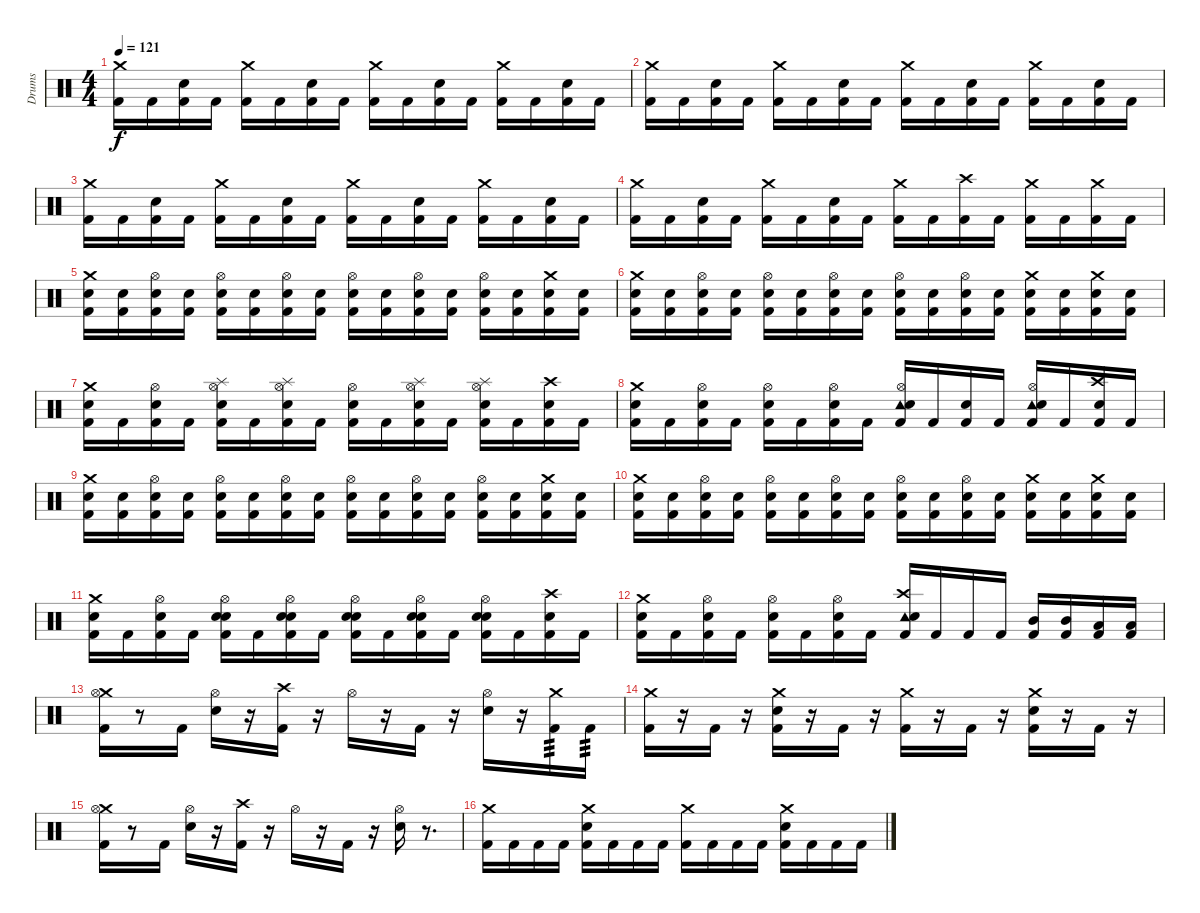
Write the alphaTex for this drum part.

\track ("Drums" "Drums") {instrument percussion}
\staff {score}
\articulation defaults
\ts (4 4)
\tempo 121
\clef neutral
\ks c
("Crash medium (hit)" "Kick (hit) 2").16{dy f} "Kick (hit) 2".16 ("Electric Snare (hit)" "Kick (hit) 2").16 "Kick (hit) 2".16 ("Crash medium (hit)" "Kick (hit) 2").16 "Kick (hit) 2".16 ("Electric Snare (hit)" "Kick (hit) 2").16 "Kick (hit) 2".16 ("Crash medium (hit)" "Kick (hit) 2").16 "Kick (hit) 2".16 ("Electric Snare (hit)" "Kick (hit) 2").16 "Kick (hit) 2".16 ("Crash medium (hit)" "Kick (hit) 2").16 "Kick (hit) 2".16 ("Electric Snare (hit)" "Kick (hit) 2").16 "Kick (hit) 2".16 |
("Crash medium (hit)" "Kick (hit) 2").16 "Kick (hit) 2".16 ("Electric Snare (hit)" "Kick (hit) 2").16 "Kick (hit) 2".16 ("Crash medium (hit)" "Kick (hit) 2").16 "Kick (hit) 2".16 ("Electric Snare (hit)" "Kick (hit) 2").16 "Kick (hit) 2".16 ("Crash medium (hit)" "Kick (hit) 2").16 "Kick (hit) 2".16 ("Electric Snare (hit)" "Kick (hit) 2").16 "Kick (hit) 2".16 ("Crash medium (hit)" "Kick (hit) 2").16 "Kick (hit) 2".16 ("Electric Snare (hit)" "Kick (hit) 2").16 "Kick (hit) 2".16 |
("Crash medium (hit)" "Kick (hit) 2").16 "Kick (hit) 2".16 ("Electric Snare (hit)" "Kick (hit) 2").16 "Kick (hit) 2".16 ("Crash medium (hit)" "Kick (hit) 2").16 "Kick (hit) 2".16 ("Electric Snare (hit)" "Kick (hit) 2").16 "Kick (hit) 2".16 ("Crash medium (hit)" "Kick (hit) 2").16 "Kick (hit) 2".16 ("Electric Snare (hit)" "Kick (hit) 2").16 "Kick (hit) 2".16 ("Crash medium (hit)" "Kick (hit) 2").16 "Kick (hit) 2".16 ("Electric Snare (hit)" "Kick (hit) 2").16 "Kick (hit) 2".16 |
("Crash medium (hit)" "Kick (hit) 2").16 "Kick (hit) 2".16 ("Electric Snare (hit)" "Kick (hit) 2").16 "Kick (hit) 2".16 ("Crash medium (hit)" "Kick (hit) 2").16 "Kick (hit) 2".16 ("Electric Snare (hit)" "Kick (hit) 2").16 "Kick (hit) 2".16 ("Crash medium (hit)" "Kick (hit) 2").16 "Kick (hit) 2".16 ("Crash high (hit)" "Kick (hit) 2").16 "Kick (hit) 2".16 ("Crash medium (hit)" "Kick (hit) 2").16 "Kick (hit) 2".16 ("Crash medium (hit)" "Kick (hit) 2").16 "Kick (hit) 2".16 |
("Crash medium (hit)" "Snare (hit) 2" "Kick (hit) 2").16 ("Snare (hit) 2" "Kick (hit) 2").16 ("Hi-Hat (open)" "Snare (hit) 2" "Kick (hit) 2").16 ("Snare (hit) 2" "Kick (hit) 2").16 ("Hi-Hat (open)" "Snare (hit) 2" "Kick (hit) 2").16 ("Snare (hit) 2" "Kick (hit) 2").16 ("Hi-Hat (open)" "Snare (hit) 2" "Kick (hit) 2").16 ("Snare (hit) 2" "Kick (hit) 2").16 ("Hi-Hat (open)" "Snare (hit) 2" "Kick (hit) 2").16 ("Snare (hit) 2" "Kick (hit) 2").16 ("Hi-Hat (open)" "Snare (hit) 2" "Kick (hit) 2").16 ("Snare (hit) 2" "Kick (hit) 2").16 ("Hi-Hat (open)" "Snare (hit) 2" "Kick (hit) 2").16 ("Snare (hit) 2" "Kick (hit) 2").16 ("Crash medium (hit)" "Snare (hit) 2" "Kick (hit) 2").16 ("Snare (hit) 2" "Kick (hit) 2").16 |
("Crash medium (hit)" "Snare (hit) 2" "Kick (hit) 2").16 ("Snare (hit) 2" "Kick (hit) 2").16 ("Hi-Hat (open)" "Snare (hit) 2" "Kick (hit) 2").16 ("Snare (hit) 2" "Kick (hit) 2").16 ("Hi-Hat (open)" "Snare (hit) 2" "Kick (hit) 2").16 ("Snare (hit) 2" "Kick (hit) 2").16 ("Hi-Hat (open)" "Snare (hit) 2" "Kick (hit) 2").16 ("Snare (hit) 2" "Kick (hit) 2").16 ("Hi-Hat (open)" "Snare (hit) 2" "Kick (hit) 2").16 ("Snare (hit) 2" "Kick (hit) 2").16 ("Hi-Hat (open)" "Snare (hit) 2" "Kick (hit) 2").16 ("Snare (hit) 2" "Kick (hit) 2").16 ("Crash medium (hit)" "Snare (hit) 2" "Kick (hit) 2").16 ("Snare (hit) 2" "Kick (hit) 2").16 ("Crash medium (hit)" "Snare (hit) 2" "Kick (hit) 2").16 ("Snare (hit) 2" "Kick (hit) 2").16 |
("Crash medium (hit)" "Snare (hit) 2" "Kick (hit) 2").16 "Kick (hit) 2".16 ("Hi-Hat (open)" "Snare (hit) 2" "Kick (hit) 2").16 "Kick (hit) 2".16 ("Hi-Hat (open)" "Splash (hit)" "Snare (hit) 2" "Kick (hit) 2").16 "Kick (hit) 2".16 ("Hi-Hat (open)" "Splash (hit)" "Snare (hit) 2" "Kick (hit) 2").16 "Kick (hit) 2".16 ("Hi-Hat (open)" "Snare (hit) 2" "Kick (hit) 2").16 "Kick (hit) 2".16 ("Hi-Hat (open)" "Splash (hit)" "Snare (hit) 2" "Kick (hit) 2").16 "Kick (hit) 2".16 ("Hi-Hat (open)" "Splash (hit)" "Snare (hit) 2" "Kick (hit) 2").16 "Kick (hit) 2".16 ("Crash high (hit)" "Snare (hit) 2" "Kick (hit) 2").16 "Kick (hit) 2".16 |
("Crash medium (hit)" "Snare (hit) 2" "Kick (hit) 2").16 "Kick (hit) 2".16 ("Hi-Hat (open)" "Snare (hit) 2" "Kick (hit) 2").16 "Kick (hit) 2".16 ("Hi-Hat (open)" "Snare (hit) 2" "Kick (hit) 2").16 "Kick (hit) 2".16 ("Hi-Hat (open)" "Snare (hit) 2" "Kick (hit) 2").16 "Kick (hit) 2".16 ("Hi-Hat (open)" "Tambourine (hit)" "Snare (hit) 2" "Kick (hit) 2").16 "Kick (hit) 2".16 ("Snare (hit) 2" "Kick (hit) 2").16 "Kick (hit) 2".16 ("Hi-Hat (open)" "Tambourine (hit)" "Snare (hit) 2" "Kick (hit) 2").16 "Kick (hit) 2".16 ("Crash high (hit)" "Snare (hit) 2" "Kick (hit) 2").16 "Kick (hit) 2".16 |
("Crash medium (hit)" "Snare (hit) 2" "Kick (hit) 2").16 ("Snare (hit) 2" "Kick (hit) 2").16 ("Hi-Hat (open)" "Snare (hit) 2" "Kick (hit) 2").16 ("Snare (hit) 2" "Kick (hit) 2").16 ("Hi-Hat (open)" "Snare (hit) 2" "Kick (hit) 2").16 ("Snare (hit) 2" "Kick (hit) 2").16 ("Hi-Hat (open)" "Snare (hit) 2" "Kick (hit) 2").16 ("Snare (hit) 2" "Kick (hit) 2").16 ("Hi-Hat (open)" "Snare (hit) 2" "Kick (hit) 2").16 ("Snare (hit) 2" "Kick (hit) 2").16 ("Hi-Hat (open)" "Snare (hit) 2" "Kick (hit) 2").16 ("Snare (hit) 2" "Kick (hit) 2").16 ("Hi-Hat (open)" "Snare (hit) 2" "Kick (hit) 2").16 ("Snare (hit) 2" "Kick (hit) 2").16 ("Crash medium (hit)" "Snare (hit) 2" "Kick (hit) 2").16 ("Snare (hit) 2" "Kick (hit) 2").16 |
("Crash medium (hit)" "Snare (hit) 2" "Kick (hit) 2").16 ("Snare (hit) 2" "Kick (hit) 2").16 ("Hi-Hat (open)" "Snare (hit) 2" "Kick (hit) 2").16 ("Snare (hit) 2" "Kick (hit) 2").16 ("Hi-Hat (open)" "Snare (hit) 2" "Kick (hit) 2").16 ("Snare (hit) 2" "Kick (hit) 2").16 ("Hi-Hat (open)" "Snare (hit) 2" "Kick (hit) 2").16 ("Snare (hit) 2" "Kick (hit) 2").16 ("Hi-Hat (open)" "Snare (hit) 2" "Kick (hit) 2").16 ("Snare (hit) 2" "Kick (hit) 2").16 ("Hi-Hat (open)" "Snare (hit) 2" "Kick (hit) 2").16 ("Snare (hit) 2" "Kick (hit) 2").16 ("Crash medium (hit)" "Snare (hit) 2" "Kick (hit) 2").16 ("Snare (hit) 2" "Kick (hit) 2").16 ("Crash medium (hit)" "Snare (hit) 2" "Kick (hit) 2").16 ("Snare (hit) 2" "Kick (hit) 2").16 |
("Crash medium (hit)" "Snare (hit) 2" "Kick (hit) 2").16 "Kick (hit) 2".16 ("Hi-Hat (open)" "Snare (hit) 2" "Kick (hit) 2").16 "Kick (hit) 2".16 ("Hi-Hat (open)" "Electric Snare (hit)" "Snare (hit) 2" "Kick (hit) 2").16 "Kick (hit) 2".16 ("Hi-Hat (open)" "Electric Snare (hit)" "Snare (hit) 2" "Kick (hit) 2").16 "Kick (hit) 2".16 ("Hi-Hat (open)" "Electric Snare (hit)" "Snare (hit) 2" "Kick (hit) 2").16 "Kick (hit) 2".16 ("Hi-Hat (open)" "Electric Snare (hit)" "Snare (hit) 2" "Kick (hit) 2").16 "Kick (hit) 2".16 ("Hi-Hat (open)" "Electric Snare (hit)" "Snare (hit) 2" "Kick (hit) 2").16 "Kick (hit) 2".16 ("Crash high (hit)" "Snare (hit) 2" "Kick (hit) 2").16 "Kick (hit) 2".16 |
("Crash medium (hit)" "Snare (hit) 2" "Kick (hit) 2").16 "Kick (hit) 2".16 ("Hi-Hat (open)" "Snare (hit) 2" "Kick (hit) 2").16 "Kick (hit) 2".16 ("Hi-Hat (open)" "Snare (hit) 2" "Kick (hit) 2").16 "Kick (hit) 2".16 ("Hi-Hat (open)" "Snare (hit) 2" "Kick (hit) 2").16 "Kick (hit) 2".16 ("Crash high (hit)" "Tambourine (hit)" "Snare (hit) 2" "Kick (hit) 2").16 "Kick (hit) 2".16 "Kick (hit) 2".16 "Kick (hit) 2".16 ("Mid Tom (hit)" "Kick (hit) 2").16 ("Mid Tom (hit)" "Kick (hit) 2").16 ("Low Tom (hit)" "Kick (hit) 2").16 ("Low Tom (hit)" "Kick (hit) 2").16 |
("Crash medium (hit)" "Hi-Hat (open)" "Kick (hit) 2").16 r.8 "Kick (hit) 2".16 ("Hi-Hat (open)" "Electric Snare (hit)").16 r.16 ("Crash high (hit)" "Kick (hit) 2").16 r.16 "Hi-Hat (open)".16 r.16 "Kick (hit) 2".16 r.16 ("Hi-Hat (open)" "Electric Snare (hit)").16 r.16 ("Crash medium (hit)" "Kick (hit) 2").16{tp 3} "Kick (hit) 2".16{tp 3} |
("Crash medium (hit)" "Kick (hit) 2").16 r.16 "Kick (hit) 2".16 r.16 ("Crash medium (hit)" "Electric Snare (hit)" "Kick (hit) 2").16 r.16 "Kick (hit) 2".16 r.16 ("Crash medium (hit)" "Kick (hit) 2").16 r.16 "Kick (hit) 2".16 r.16 ("Crash medium (hit)" "Electric Snare (hit)" "Kick (hit) 2").16 r.16 "Kick (hit) 2".16 r.16 |
("Crash medium (hit)" "Hi-Hat (open)" "Kick (hit) 2").16 r.8 "Kick (hit) 2".16 ("Hi-Hat (open)" "Electric Snare (hit)").16 r.16 ("Crash high (hit)" "Kick (hit) 2").16 r.16 "Hi-Hat (open)".16 r.16 "Kick (hit) 2".16 r.16 ("Hi-Hat (open)" "Electric Snare (hit)").16 r.8{d} |
("Crash medium (hit)" "Kick (hit) 2").16 "Kick (hit) 2".16 "Kick (hit) 2".16 "Kick (hit) 2".16 ("Crash medium (hit)" "Electric Snare (hit)" "Kick (hit) 2").16 "Kick (hit) 2".16 "Kick (hit) 2".16 "Kick (hit) 2".16 ("Crash medium (hit)" "Kick (hit) 2").16 "Kick (hit) 2".16 "Kick (hit) 2".16 "Kick (hit) 2".16 ("Crash medium (hit)" "Electric Snare (hit)" "Kick (hit) 2").16 "Kick (hit) 2".16 "Kick (hit) 2".16 "Kick (hit) 2".16
